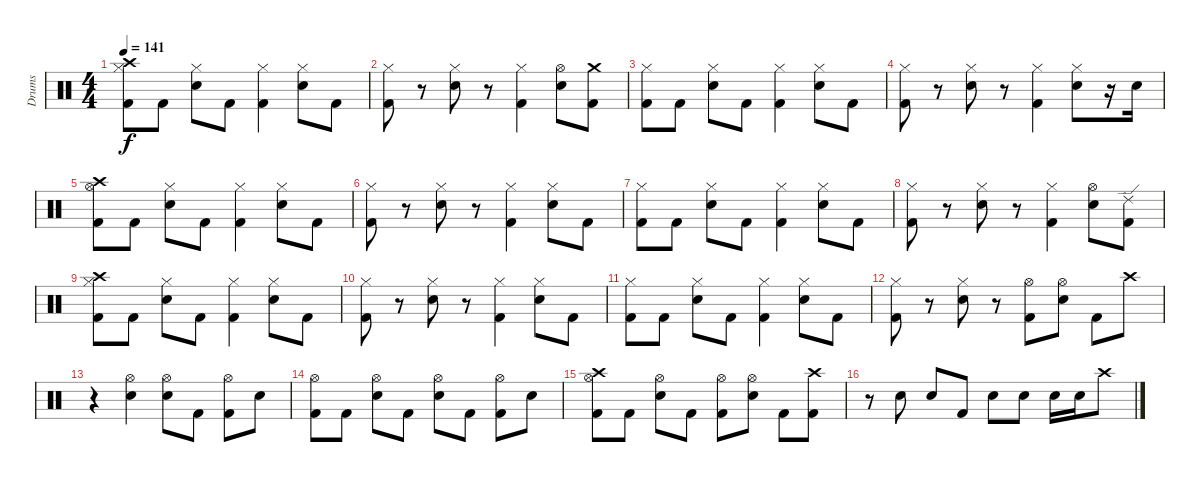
\track ("Drums" "Drums") {instrument percussion}
\staff {score}
\articulation defaults
\ts (4 4)
\tempo 141
\clef neutral
\ks c
("Crash high (hit)" "Hi-Hat (closed)" "Kick (hit) 2").8{dy f} "Kick (hit) 2".8 ("Hi-Hat (closed)" "Electric Snare (hit)").8 "Kick (hit) 2".8 ("Hi-Hat (closed)" "Kick (hit) 2").4 ("Hi-Hat (closed)" "Electric Snare (hit)").8 "Kick (hit) 2".8 |
("Hi-Hat (closed)" "Kick (hit) 2").8 r.8 ("Hi-Hat (closed)" "Electric Snare (hit)").8 r.8 ("Hi-Hat (closed)" "Kick (hit) 2").4 ("Hi-Hat (open)" "Electric Snare (hit)").8 ("Crash medium (hit)" "Kick (hit) 2").8 |
("Hi-Hat (closed)" "Kick (hit) 2").8 "Kick (hit) 2".8 ("Hi-Hat (closed)" "Electric Snare (hit)").8 "Kick (hit) 2".8 ("Hi-Hat (closed)" "Kick (hit) 2").4 ("Hi-Hat (closed)" "Electric Snare (hit)").8 "Kick (hit) 2".8 |
("Hi-Hat (closed)" "Kick (hit) 2").8 r.8 ("Hi-Hat (closed)" "Electric Snare (hit)").8 r.8 ("Hi-Hat (closed)" "Kick (hit) 2").4 ("Hi-Hat (closed)" "Electric Snare (hit)").8 r.16 "Electric Snare (hit)".16 |
("Crash high (hit)" "Hi-Hat (open)" "Kick (hit) 2").8 "Kick (hit) 2".8 ("Hi-Hat (closed)" "Electric Snare (hit)").8 "Kick (hit) 2".8 ("Hi-Hat (closed)" "Kick (hit) 2").4 ("Hi-Hat (closed)" "Electric Snare (hit)").8 "Kick (hit) 2".8 |
("Hi-Hat (closed)" "Kick (hit) 2").8 r.8 ("Hi-Hat (closed)" "Electric Snare (hit)").8 r.8 ("Hi-Hat (closed)" "Kick (hit) 2").4 ("Hi-Hat (closed)" "Electric Snare (hit)").8 "Kick (hit) 2".8 |
("Hi-Hat (closed)" "Kick (hit) 2").8 "Kick (hit) 2".8 ("Hi-Hat (closed)" "Electric Snare (hit)").8 "Kick (hit) 2".8 ("Hi-Hat (closed)" "Kick (hit) 2").4 ("Hi-Hat (closed)" "Electric Snare (hit)").8 "Kick (hit) 2".8 |
("Hi-Hat (closed)" "Kick (hit) 2").8 r.8 ("Hi-Hat (closed)" "Electric Snare (hit)").8 r.8 ("Hi-Hat (closed)" "Kick (hit) 2").4 ("Hi-Hat (open)" "Electric Snare (hit)").8 ("Ride (edge) 2" "Kick (hit) 2").8 |
("Crash high (hit)" "Hi-Hat (closed)" "Kick (hit) 2").8 "Kick (hit) 2".8 ("Hi-Hat (closed)" "Electric Snare (hit)").8 "Kick (hit) 2".8 ("Hi-Hat (closed)" "Kick (hit) 2").4 ("Hi-Hat (closed)" "Electric Snare (hit)").8 "Kick (hit) 2".8 |
("Hi-Hat (closed)" "Kick (hit) 2").8 r.8 ("Hi-Hat (closed)" "Electric Snare (hit)").8 r.8 ("Hi-Hat (closed)" "Kick (hit) 2").4 ("Hi-Hat (closed)" "Electric Snare (hit)").8 "Kick (hit) 2".8 |
("Hi-Hat (closed)" "Kick (hit) 2").8 "Kick (hit) 2".8 ("Hi-Hat (closed)" "Electric Snare (hit)").8 "Kick (hit) 2".8 ("Hi-Hat (closed)" "Kick (hit) 2").4 ("Hi-Hat (closed)" "Electric Snare (hit)").8 "Kick (hit) 2".8 |
("Hi-Hat (closed)" "Kick (hit) 2").8 r.8 ("Hi-Hat (closed)" "Electric Snare (hit)").8 r.8 ("Hi-Hat (open)" "Kick (hit) 2").8 ("Hi-Hat (open)" "Electric Snare (hit)").8 "Kick (hit) 2".8 "Crash high (hit)".8 |
r.4 ("Hi-Hat (open)" "Electric Snare (hit)").4 ("Hi-Hat (open)" "Electric Snare (hit)").8 "Kick (hit) 2".8 ("Hi-Hat (open)" "Kick (hit) 2").8 "Electric Snare (hit)".8 |
("Hi-Hat (open)" "Kick (hit) 2").8 "Kick (hit) 2".8 ("Hi-Hat (open)" "Electric Snare (hit)").8 "Kick (hit) 2".8 ("Hi-Hat (open)" "Electric Snare (hit)").8 "Kick (hit) 2".8 ("Hi-Hat (open)" "Kick (hit) 2").8 "Electric Snare (hit)".8 |
("Crash high (hit)" "Hi-Hat (open)" "Kick (hit) 2").8 "Kick (hit) 2".8 ("Hi-Hat (open)" "Electric Snare (hit)").8 "Kick (hit) 2".8 ("Hi-Hat (open)" "Kick (hit) 2").8 ("Hi-Hat (open)" "Electric Snare (hit)").8 "Kick (hit) 2".8 ("Crash high (hit)" "Kick (hit) 2").8 |
r.8 "Electric Snare (hit)".8 "Electric Snare (hit)".8 "Kick (hit) 2".8 "Electric Snare (hit)".8 "Electric Snare (hit)".8 "Electric Snare (hit)".16 "Electric Snare (hit)".16 "Crash high (hit)".8
